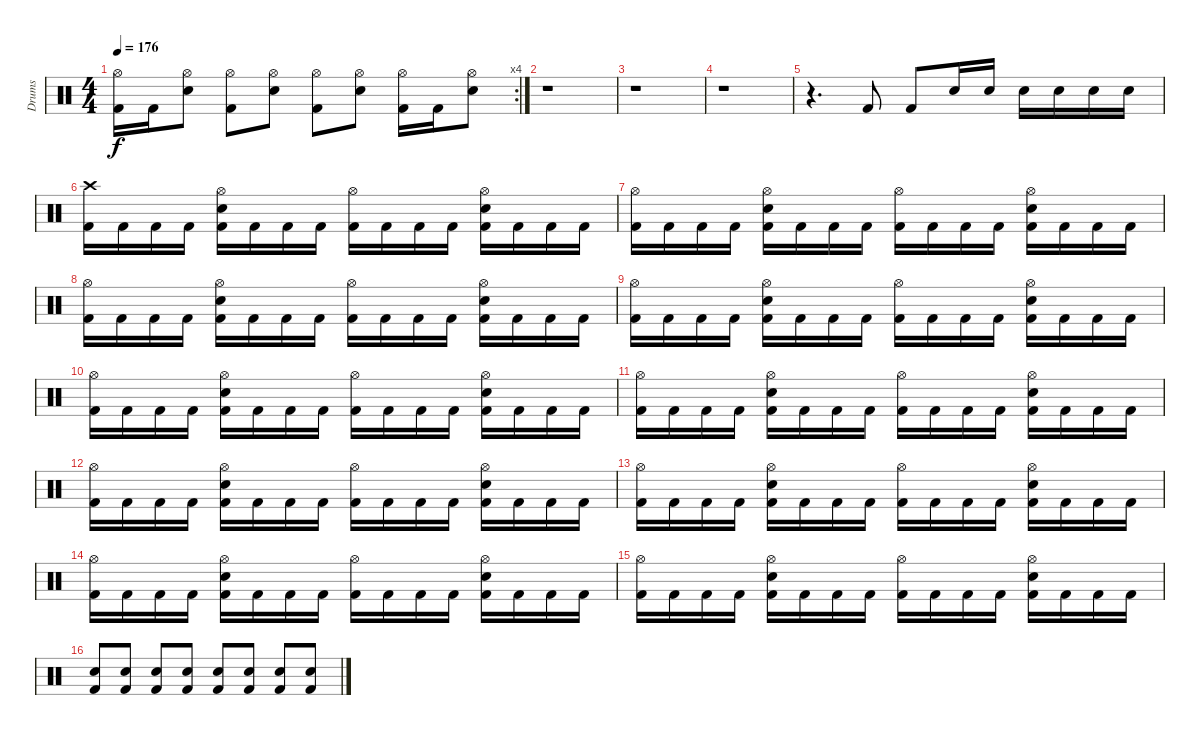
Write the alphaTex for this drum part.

\track ("Drums" "Drums") {instrument percussion}
\staff {score}
\articulation defaults
\rc 4
\ts (4 4)
\tempo 176
\clef neutral
\ks c
("Hi-Hat (open)" "Kick (hit) 2").16{dy f} "Kick (hit) 2".16 ("Hi-Hat (open)" "Electric Snare (hit)").8 ("Hi-Hat (open)" "Kick (hit) 2").8 ("Hi-Hat (open)" "Electric Snare (hit)").8 ("Hi-Hat (open)" "Kick (hit) 2").8 ("Hi-Hat (open)" "Electric Snare (hit)").8 ("Hi-Hat (open)" "Kick (hit) 2").16 "Kick (hit) 2".16 ("Hi-Hat (open)" "Electric Snare (hit)").8 |
r.1 |
r.1 |
r.1 |
r.4{d} "Kick (hit) 2".8 "Kick (hit) 2".8 "Electric Snare (hit)".16 "Electric Snare (hit)".16 "Electric Snare (hit)".16 "Electric Snare (hit)".16 "Electric Snare (hit)".16 "Electric Snare (hit)".16 |
("Crash high (hit)" "Kick (hit) 2").16 "Kick (hit) 2".16 "Kick (hit) 2".16 "Kick (hit) 2".16 ("Hi-Hat (open)" "Electric Snare (hit)" "Kick (hit) 2").16 "Kick (hit) 2".16 "Kick (hit) 2".16 "Kick (hit) 2".16 ("Hi-Hat (open)" "Kick (hit) 2").16 "Kick (hit) 2".16 "Kick (hit) 2".16 "Kick (hit) 2".16 ("Hi-Hat (open)" "Electric Snare (hit)" "Kick (hit) 2").16 "Kick (hit) 2".16 "Kick (hit) 2".16 "Kick (hit) 2".16 |
("Hi-Hat (open)" "Kick (hit) 2").16 "Kick (hit) 2".16 "Kick (hit) 2".16 "Kick (hit) 2".16 ("Hi-Hat (open)" "Electric Snare (hit)" "Kick (hit) 2").16 "Kick (hit) 2".16 "Kick (hit) 2".16 "Kick (hit) 2".16 ("Hi-Hat (open)" "Kick (hit) 2").16 "Kick (hit) 2".16 "Kick (hit) 2".16 "Kick (hit) 2".16 ("Hi-Hat (open)" "Electric Snare (hit)" "Kick (hit) 2").16 "Kick (hit) 2".16 "Kick (hit) 2".16 "Kick (hit) 2".16 |
("Hi-Hat (open)" "Kick (hit) 2").16 "Kick (hit) 2".16 "Kick (hit) 2".16 "Kick (hit) 2".16 ("Hi-Hat (open)" "Electric Snare (hit)" "Kick (hit) 2").16 "Kick (hit) 2".16 "Kick (hit) 2".16 "Kick (hit) 2".16 ("Hi-Hat (open)" "Kick (hit) 2").16 "Kick (hit) 2".16 "Kick (hit) 2".16 "Kick (hit) 2".16 ("Hi-Hat (open)" "Electric Snare (hit)" "Kick (hit) 2").16 "Kick (hit) 2".16 "Kick (hit) 2".16 "Kick (hit) 2".16 |
("Hi-Hat (open)" "Kick (hit) 2").16 "Kick (hit) 2".16 "Kick (hit) 2".16 "Kick (hit) 2".16 ("Hi-Hat (open)" "Electric Snare (hit)" "Kick (hit) 2").16 "Kick (hit) 2".16 "Kick (hit) 2".16 "Kick (hit) 2".16 ("Hi-Hat (open)" "Kick (hit) 2").16 "Kick (hit) 2".16 "Kick (hit) 2".16 "Kick (hit) 2".16 ("Hi-Hat (open)" "Electric Snare (hit)" "Kick (hit) 2").16 "Kick (hit) 2".16 "Kick (hit) 2".16 "Kick (hit) 2".16 |
("Hi-Hat (open)" "Kick (hit) 2").16 "Kick (hit) 2".16 "Kick (hit) 2".16 "Kick (hit) 2".16 ("Hi-Hat (open)" "Electric Snare (hit)" "Kick (hit) 2").16 "Kick (hit) 2".16 "Kick (hit) 2".16 "Kick (hit) 2".16 ("Hi-Hat (open)" "Kick (hit) 2").16 "Kick (hit) 2".16 "Kick (hit) 2".16 "Kick (hit) 2".16 ("Hi-Hat (open)" "Electric Snare (hit)" "Kick (hit) 2").16 "Kick (hit) 2".16 "Kick (hit) 2".16 "Kick (hit) 2".16 |
("Hi-Hat (open)" "Kick (hit) 2").16 "Kick (hit) 2".16 "Kick (hit) 2".16 "Kick (hit) 2".16 ("Hi-Hat (open)" "Electric Snare (hit)" "Kick (hit) 2").16 "Kick (hit) 2".16 "Kick (hit) 2".16 "Kick (hit) 2".16 ("Hi-Hat (open)" "Kick (hit) 2").16 "Kick (hit) 2".16 "Kick (hit) 2".16 "Kick (hit) 2".16 ("Hi-Hat (open)" "Electric Snare (hit)" "Kick (hit) 2").16 "Kick (hit) 2".16 "Kick (hit) 2".16 "Kick (hit) 2".16 |
("Hi-Hat (open)" "Kick (hit) 2").16 "Kick (hit) 2".16 "Kick (hit) 2".16 "Kick (hit) 2".16 ("Hi-Hat (open)" "Electric Snare (hit)" "Kick (hit) 2").16 "Kick (hit) 2".16 "Kick (hit) 2".16 "Kick (hit) 2".16 ("Hi-Hat (open)" "Kick (hit) 2").16 "Kick (hit) 2".16 "Kick (hit) 2".16 "Kick (hit) 2".16 ("Hi-Hat (open)" "Electric Snare (hit)" "Kick (hit) 2").16 "Kick (hit) 2".16 "Kick (hit) 2".16 "Kick (hit) 2".16 |
("Hi-Hat (open)" "Kick (hit) 2").16 "Kick (hit) 2".16 "Kick (hit) 2".16 "Kick (hit) 2".16 ("Hi-Hat (open)" "Electric Snare (hit)" "Kick (hit) 2").16 "Kick (hit) 2".16 "Kick (hit) 2".16 "Kick (hit) 2".16 ("Hi-Hat (open)" "Kick (hit) 2").16 "Kick (hit) 2".16 "Kick (hit) 2".16 "Kick (hit) 2".16 ("Hi-Hat (open)" "Electric Snare (hit)" "Kick (hit) 2").16 "Kick (hit) 2".16 "Kick (hit) 2".16 "Kick (hit) 2".16 |
("Hi-Hat (open)" "Kick (hit) 2").16 "Kick (hit) 2".16 "Kick (hit) 2".16 "Kick (hit) 2".16 ("Hi-Hat (open)" "Electric Snare (hit)" "Kick (hit) 2").16 "Kick (hit) 2".16 "Kick (hit) 2".16 "Kick (hit) 2".16 ("Hi-Hat (open)" "Kick (hit) 2").16 "Kick (hit) 2".16 "Kick (hit) 2".16 "Kick (hit) 2".16 ("Hi-Hat (open)" "Electric Snare (hit)" "Kick (hit) 2").16 "Kick (hit) 2".16 "Kick (hit) 2".16 "Kick (hit) 2".16 |
("Hi-Hat (open)" "Kick (hit) 2").16 "Kick (hit) 2".16 "Kick (hit) 2".16 "Kick (hit) 2".16 ("Hi-Hat (open)" "Electric Snare (hit)" "Kick (hit) 2").16 "Kick (hit) 2".16 "Kick (hit) 2".16 "Kick (hit) 2".16 ("Hi-Hat (open)" "Kick (hit) 2").16 "Kick (hit) 2".16 "Kick (hit) 2".16 "Kick (hit) 2".16 ("Hi-Hat (open)" "Electric Snare (hit)" "Kick (hit) 2").16 "Kick (hit) 2".16 "Kick (hit) 2".16 "Kick (hit) 2".16 |
("Electric Snare (hit)" "Kick (hit) 2").8 ("Electric Snare (hit)" "Kick (hit) 2").8 ("Electric Snare (hit)" "Kick (hit) 2").8 ("Electric Snare (hit)" "Kick (hit) 2").8 ("Electric Snare (hit)" "Kick (hit) 2").8 ("Electric Snare (hit)" "Kick (hit) 2").8 ("Electric Snare (hit)" "Kick (hit) 2").8 ("Electric Snare (hit)" "Kick (hit) 2").8
